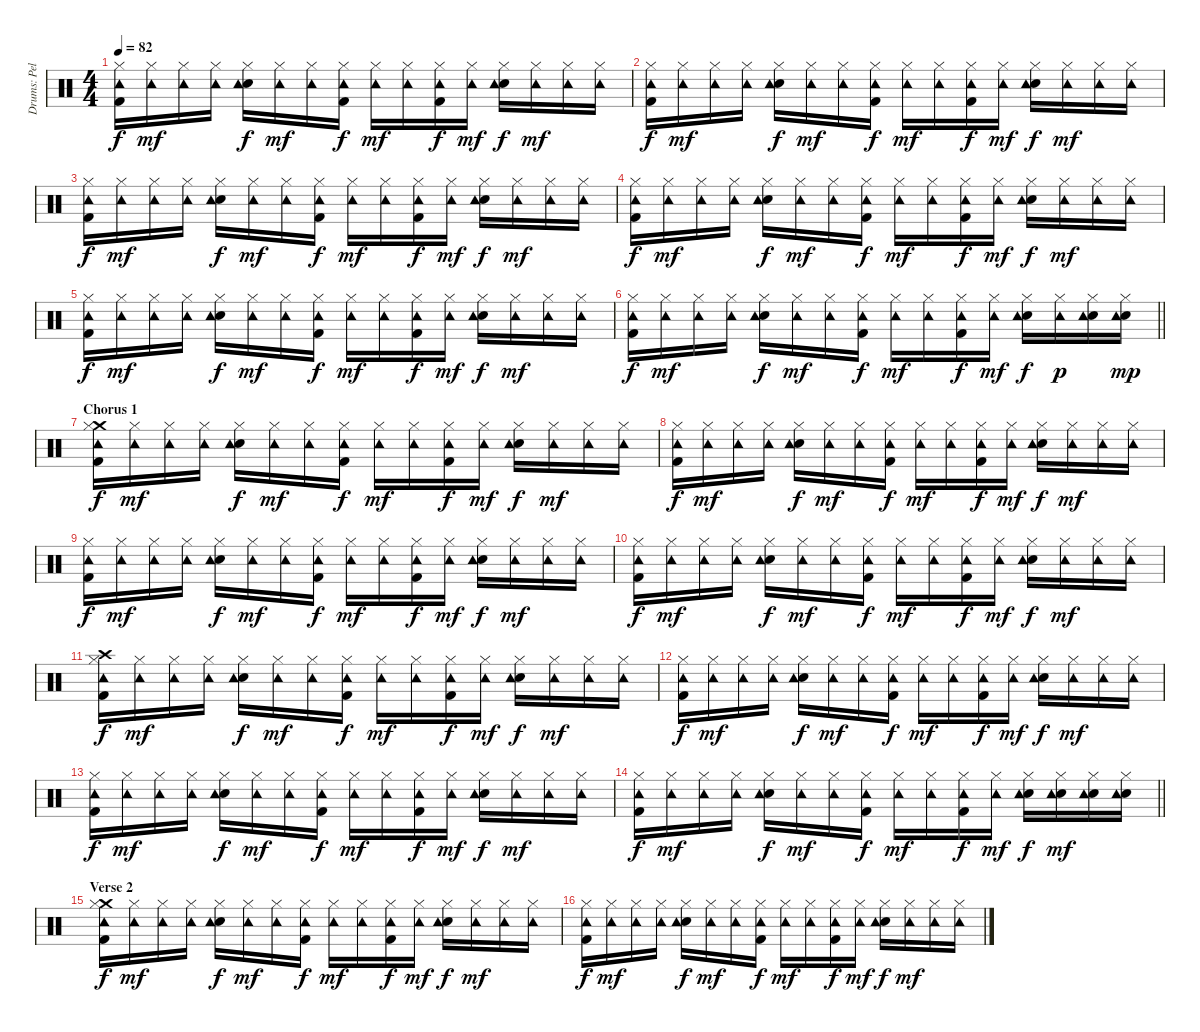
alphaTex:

\track ("Drums: Pelle Alsing" "Drums: Pel") {instrument percussion}
\staff {score}
\articulation defaults
\ts (4 4)
\tempo 82
\clef neutral
\ks c
("Hi-Hat (closed)" "Tambourine (hit)" "Kick (hit) 2").16{dy f} ("Hi-Hat (closed)" "Tambourine (hit)").16{dy mf} ("Hi-Hat (closed)" "Tambourine (hit)").16 ("Hi-Hat (closed)" "Tambourine (hit)").16 ("Hi-Hat (closed)" "Snare (hit) 2" "Tambourine (hit)").16{dy f} ("Hi-Hat (closed)" "Tambourine (hit)").16{dy mf} ("Hi-Hat (closed)" "Tambourine (hit)").16 ("Hi-Hat (closed)" "Tambourine (hit)" "Kick (hit) 2").16{dy f} ("Hi-Hat (closed)" "Tambourine (hit)").16{dy mf} ("Hi-Hat (closed)" "Tambourine (hit)").16 ("Hi-Hat (closed)" "Tambourine (hit)" "Kick (hit) 2").16{dy f} ("Hi-Hat (closed)" "Tambourine (hit)").16{dy mf} ("Hi-Hat (closed)" "Snare (hit) 2" "Tambourine (hit)").16{dy f} ("Hi-Hat (closed)" "Tambourine (hit)").16{dy mf} ("Hi-Hat (closed)" "Tambourine (hit)").16 ("Hi-Hat (closed)" "Tambourine (hit)").16 |
("Hi-Hat (closed)" "Tambourine (hit)" "Kick (hit) 2").16{dy f} ("Hi-Hat (closed)" "Tambourine (hit)").16{dy mf} ("Hi-Hat (closed)" "Tambourine (hit)").16 ("Hi-Hat (closed)" "Tambourine (hit)").16 ("Hi-Hat (closed)" "Snare (hit) 2" "Tambourine (hit)").16{dy f} ("Hi-Hat (closed)" "Tambourine (hit)").16{dy mf} ("Hi-Hat (closed)" "Tambourine (hit)").16 ("Hi-Hat (closed)" "Tambourine (hit)" "Kick (hit) 2").16{dy f} ("Hi-Hat (closed)" "Tambourine (hit)").16{dy mf} ("Hi-Hat (closed)" "Tambourine (hit)").16 ("Hi-Hat (closed)" "Tambourine (hit)" "Kick (hit) 2").16{dy f} ("Hi-Hat (closed)" "Tambourine (hit)").16{dy mf} ("Hi-Hat (closed)" "Snare (hit) 2" "Tambourine (hit)").16{dy f} ("Hi-Hat (closed)" "Tambourine (hit)").16{dy mf} ("Hi-Hat (closed)" "Tambourine (hit)").16 ("Hi-Hat (closed)" "Tambourine (hit)").16 |
("Hi-Hat (closed)" "Tambourine (hit)" "Kick (hit) 2").16{dy f} ("Hi-Hat (closed)" "Tambourine (hit)").16{dy mf} ("Hi-Hat (closed)" "Tambourine (hit)").16 ("Hi-Hat (closed)" "Tambourine (hit)").16 ("Hi-Hat (closed)" "Snare (hit) 2" "Tambourine (hit)").16{dy f} ("Hi-Hat (closed)" "Tambourine (hit)").16{dy mf} ("Hi-Hat (closed)" "Tambourine (hit)").16 ("Hi-Hat (closed)" "Tambourine (hit)" "Kick (hit) 2").16{dy f} ("Hi-Hat (closed)" "Tambourine (hit)").16{dy mf} ("Hi-Hat (closed)" "Tambourine (hit)").16 ("Hi-Hat (closed)" "Tambourine (hit)" "Kick (hit) 2").16{dy f} ("Hi-Hat (closed)" "Tambourine (hit)").16{dy mf} ("Hi-Hat (closed)" "Snare (hit) 2" "Tambourine (hit)").16{dy f} ("Hi-Hat (closed)" "Tambourine (hit)").16{dy mf} ("Hi-Hat (closed)" "Tambourine (hit)").16 ("Hi-Hat (closed)" "Tambourine (hit)").16 |
("Hi-Hat (closed)" "Tambourine (hit)" "Kick (hit) 2").16{dy f} ("Hi-Hat (closed)" "Tambourine (hit)").16{dy mf} ("Hi-Hat (closed)" "Tambourine (hit)").16 ("Hi-Hat (closed)" "Tambourine (hit)").16 ("Hi-Hat (closed)" "Snare (hit) 2" "Tambourine (hit)").16{dy f} ("Hi-Hat (closed)" "Tambourine (hit)").16{dy mf} ("Hi-Hat (closed)" "Tambourine (hit)").16 ("Hi-Hat (closed)" "Tambourine (hit)" "Kick (hit) 2").16{dy f} ("Hi-Hat (closed)" "Tambourine (hit)").16{dy mf} ("Hi-Hat (closed)" "Tambourine (hit)").16 ("Hi-Hat (closed)" "Tambourine (hit)" "Kick (hit) 2").16{dy f} ("Hi-Hat (closed)" "Tambourine (hit)").16{dy mf} ("Hi-Hat (closed)" "Snare (hit) 2" "Tambourine (hit)").16{dy f} ("Hi-Hat (closed)" "Tambourine (hit)").16{dy mf} ("Hi-Hat (closed)" "Tambourine (hit)").16 ("Hi-Hat (closed)" "Tambourine (hit)").16 |
("Hi-Hat (closed)" "Tambourine (hit)" "Kick (hit) 2").16{dy f} ("Hi-Hat (closed)" "Tambourine (hit)").16{dy mf} ("Hi-Hat (closed)" "Tambourine (hit)").16 ("Hi-Hat (closed)" "Tambourine (hit)").16 ("Hi-Hat (closed)" "Snare (hit) 2" "Tambourine (hit)").16{dy f} ("Hi-Hat (closed)" "Tambourine (hit)").16{dy mf} ("Hi-Hat (closed)" "Tambourine (hit)").16 ("Hi-Hat (closed)" "Tambourine (hit)" "Kick (hit) 2").16{dy f} ("Hi-Hat (closed)" "Tambourine (hit)").16{dy mf} ("Hi-Hat (closed)" "Tambourine (hit)").16 ("Hi-Hat (closed)" "Tambourine (hit)" "Kick (hit) 2").16{dy f} ("Hi-Hat (closed)" "Tambourine (hit)").16{dy mf} ("Hi-Hat (closed)" "Snare (hit) 2" "Tambourine (hit)").16{dy f} ("Hi-Hat (closed)" "Tambourine (hit)").16{dy mf} ("Hi-Hat (closed)" "Tambourine (hit)").16 ("Hi-Hat (closed)" "Tambourine (hit)").16 |
\barLineRight lightlight
("Hi-Hat (closed)" "Tambourine (hit)" "Kick (hit) 2").16{dy f} ("Hi-Hat (closed)" "Tambourine (hit)").16{dy mf} ("Hi-Hat (closed)" "Tambourine (hit)").16 ("Hi-Hat (closed)" "Tambourine (hit)").16 ("Hi-Hat (closed)" "Snare (hit) 2" "Tambourine (hit)").16{dy f} ("Hi-Hat (closed)" "Tambourine (hit)").16{dy mf} ("Hi-Hat (closed)" "Tambourine (hit)").16 ("Hi-Hat (closed)" "Tambourine (hit)" "Kick (hit) 2").16{dy f} ("Hi-Hat (closed)" "Tambourine (hit)").16{dy mf} ("Hi-Hat (closed)" "Tambourine (hit)").16 ("Hi-Hat (closed)" "Tambourine (hit)" "Kick (hit) 2").16{dy f} ("Hi-Hat (closed)" "Tambourine (hit)").16{dy mf} ("Hi-Hat (closed)" "Snare (hit) 2" "Tambourine (hit)").16{dy f} ("Hi-Hat (closed)" "Tambourine (hit)").16{dy p} ("Snare (hit) 2" "Hi-Hat (closed)" "Tambourine (hit)").16 ("Snare (hit) 2" "Hi-Hat (closed)" "Tambourine (hit)").16{dy mp} |
\section ("" "Chorus 1")
("Crash medium (hit)" "Hi-Hat (closed)" "Tambourine (hit)" "Kick (hit) 2").16{dy f} ("Hi-Hat (closed)" "Tambourine (hit)").16{dy mf} ("Hi-Hat (closed)" "Tambourine (hit)").16 ("Hi-Hat (closed)" "Tambourine (hit)").16 ("Hi-Hat (closed)" "Snare (hit) 2" "Tambourine (hit)").16{dy f} ("Hi-Hat (closed)" "Tambourine (hit)").16{dy mf} ("Hi-Hat (closed)" "Tambourine (hit)").16 ("Hi-Hat (closed)" "Tambourine (hit)" "Kick (hit) 2").16{dy f} ("Hi-Hat (closed)" "Tambourine (hit)").16{dy mf} ("Hi-Hat (closed)" "Tambourine (hit)").16 ("Hi-Hat (closed)" "Tambourine (hit)" "Kick (hit) 2").16{dy f} ("Hi-Hat (closed)" "Tambourine (hit)").16{dy mf} ("Hi-Hat (closed)" "Snare (hit) 2" "Tambourine (hit)").16{dy f} ("Hi-Hat (closed)" "Tambourine (hit)").16{dy mf} ("Hi-Hat (closed)" "Tambourine (hit)").16 ("Hi-Hat (closed)" "Tambourine (hit)").16 |
("Hi-Hat (closed)" "Tambourine (hit)" "Kick (hit) 2").16{dy f} ("Hi-Hat (closed)" "Tambourine (hit)").16{dy mf} ("Hi-Hat (closed)" "Tambourine (hit)").16 ("Hi-Hat (closed)" "Tambourine (hit)").16 ("Hi-Hat (closed)" "Snare (hit) 2" "Tambourine (hit)").16{dy f} ("Hi-Hat (closed)" "Tambourine (hit)").16{dy mf} ("Hi-Hat (closed)" "Tambourine (hit)").16 ("Hi-Hat (closed)" "Tambourine (hit)" "Kick (hit) 2").16{dy f} ("Hi-Hat (closed)" "Tambourine (hit)").16{dy mf} ("Hi-Hat (closed)" "Tambourine (hit)").16 ("Hi-Hat (closed)" "Tambourine (hit)" "Kick (hit) 2").16{dy f} ("Hi-Hat (closed)" "Tambourine (hit)").16{dy mf} ("Hi-Hat (closed)" "Snare (hit) 2" "Tambourine (hit)").16{dy f} ("Hi-Hat (closed)" "Tambourine (hit)").16{dy mf} ("Hi-Hat (closed)" "Tambourine (hit)").16 ("Hi-Hat (closed)" "Tambourine (hit)").16 |
("Hi-Hat (closed)" "Tambourine (hit)" "Kick (hit) 2").16{dy f} ("Hi-Hat (closed)" "Tambourine (hit)").16{dy mf} ("Hi-Hat (closed)" "Tambourine (hit)").16 ("Hi-Hat (closed)" "Tambourine (hit)").16 ("Hi-Hat (closed)" "Snare (hit) 2" "Tambourine (hit)").16{dy f} ("Hi-Hat (closed)" "Tambourine (hit)").16{dy mf} ("Hi-Hat (closed)" "Tambourine (hit)").16 ("Hi-Hat (closed)" "Tambourine (hit)" "Kick (hit) 2").16{dy f} ("Hi-Hat (closed)" "Tambourine (hit)").16{dy mf} ("Hi-Hat (closed)" "Tambourine (hit)").16 ("Hi-Hat (closed)" "Tambourine (hit)" "Kick (hit) 2").16{dy f} ("Hi-Hat (closed)" "Tambourine (hit)").16{dy mf} ("Hi-Hat (closed)" "Snare (hit) 2" "Tambourine (hit)").16{dy f} ("Hi-Hat (closed)" "Tambourine (hit)").16{dy mf} ("Hi-Hat (closed)" "Tambourine (hit)").16 ("Hi-Hat (closed)" "Tambourine (hit)").16 |
("Hi-Hat (closed)" "Tambourine (hit)" "Kick (hit) 2").16{dy f} ("Hi-Hat (closed)" "Tambourine (hit)").16{dy mf} ("Hi-Hat (closed)" "Tambourine (hit)").16 ("Hi-Hat (closed)" "Tambourine (hit)").16 ("Hi-Hat (closed)" "Snare (hit) 2" "Tambourine (hit)").16{dy f} ("Hi-Hat (closed)" "Tambourine (hit)").16{dy mf} ("Hi-Hat (closed)" "Tambourine (hit)").16 ("Hi-Hat (closed)" "Tambourine (hit)" "Kick (hit) 2").16{dy f} ("Hi-Hat (closed)" "Tambourine (hit)").16{dy mf} ("Hi-Hat (closed)" "Tambourine (hit)").16 ("Hi-Hat (closed)" "Tambourine (hit)" "Kick (hit) 2").16{dy f} ("Hi-Hat (closed)" "Tambourine (hit)").16{dy mf} ("Hi-Hat (closed)" "Snare (hit) 2" "Tambourine (hit)").16{dy f} ("Hi-Hat (closed)" "Tambourine (hit)").16{dy mf} ("Hi-Hat (closed)" "Tambourine (hit)").16 ("Hi-Hat (closed)" "Tambourine (hit)").16 |
("Crash high (hit)" "Hi-Hat (closed)" "Tambourine (hit)" "Kick (hit) 2").16{dy f} ("Hi-Hat (closed)" "Tambourine (hit)").16{dy mf} ("Hi-Hat (closed)" "Tambourine (hit)").16 ("Hi-Hat (closed)" "Tambourine (hit)").16 ("Hi-Hat (closed)" "Snare (hit) 2" "Tambourine (hit)").16{dy f} ("Hi-Hat (closed)" "Tambourine (hit)").16{dy mf} ("Hi-Hat (closed)" "Tambourine (hit)").16 ("Hi-Hat (closed)" "Tambourine (hit)" "Kick (hit) 2").16{dy f} ("Hi-Hat (closed)" "Tambourine (hit)").16{dy mf} ("Hi-Hat (closed)" "Tambourine (hit)").16 ("Hi-Hat (closed)" "Tambourine (hit)" "Kick (hit) 2").16{dy f} ("Hi-Hat (closed)" "Tambourine (hit)").16{dy mf} ("Hi-Hat (closed)" "Snare (hit) 2" "Tambourine (hit)").16{dy f} ("Hi-Hat (closed)" "Tambourine (hit)").16{dy mf} ("Hi-Hat (closed)" "Tambourine (hit)").16 ("Hi-Hat (closed)" "Tambourine (hit)").16 |
("Hi-Hat (closed)" "Tambourine (hit)" "Kick (hit) 2").16{dy f} ("Hi-Hat (closed)" "Tambourine (hit)").16{dy mf} ("Hi-Hat (closed)" "Tambourine (hit)").16 ("Hi-Hat (closed)" "Tambourine (hit)").16 ("Hi-Hat (closed)" "Snare (hit) 2" "Tambourine (hit)").16{dy f} ("Hi-Hat (closed)" "Tambourine (hit)").16{dy mf} ("Hi-Hat (closed)" "Tambourine (hit)").16 ("Hi-Hat (closed)" "Tambourine (hit)" "Kick (hit) 2").16{dy f} ("Hi-Hat (closed)" "Tambourine (hit)").16{dy mf} ("Hi-Hat (closed)" "Tambourine (hit)").16 ("Hi-Hat (closed)" "Tambourine (hit)" "Kick (hit) 2").16{dy f} ("Hi-Hat (closed)" "Tambourine (hit)").16{dy mf} ("Hi-Hat (closed)" "Snare (hit) 2" "Tambourine (hit)").16{dy f} ("Hi-Hat (closed)" "Tambourine (hit)").16{dy mf} ("Hi-Hat (closed)" "Tambourine (hit)").16 ("Hi-Hat (closed)" "Tambourine (hit)").16 |
("Hi-Hat (closed)" "Tambourine (hit)" "Kick (hit) 2").16{dy f} ("Hi-Hat (closed)" "Tambourine (hit)").16{dy mf} ("Hi-Hat (closed)" "Tambourine (hit)").16 ("Hi-Hat (closed)" "Tambourine (hit)").16 ("Hi-Hat (closed)" "Snare (hit) 2" "Tambourine (hit)").16{dy f} ("Hi-Hat (closed)" "Tambourine (hit)").16{dy mf} ("Hi-Hat (closed)" "Tambourine (hit)").16 ("Hi-Hat (closed)" "Tambourine (hit)" "Kick (hit) 2").16{dy f} ("Hi-Hat (closed)" "Tambourine (hit)").16{dy mf} ("Hi-Hat (closed)" "Tambourine (hit)").16 ("Hi-Hat (closed)" "Tambourine (hit)" "Kick (hit) 2").16{dy f} ("Hi-Hat (closed)" "Tambourine (hit)").16{dy mf} ("Hi-Hat (closed)" "Snare (hit) 2" "Tambourine (hit)").16{dy f} ("Hi-Hat (closed)" "Tambourine (hit)").16{dy mf} ("Hi-Hat (closed)" "Tambourine (hit)").16 ("Hi-Hat (closed)" "Tambourine (hit)").16 |
\barLineRight lightlight
("Hi-Hat (closed)" "Tambourine (hit)" "Kick (hit) 2").16{dy f} ("Hi-Hat (closed)" "Tambourine (hit)").16{dy mf} ("Hi-Hat (closed)" "Tambourine (hit)").16 ("Hi-Hat (closed)" "Tambourine (hit)").16 ("Hi-Hat (closed)" "Snare (hit) 2" "Tambourine (hit)").16{dy f} ("Hi-Hat (closed)" "Tambourine (hit)").16{dy mf} ("Hi-Hat (closed)" "Tambourine (hit)").16 ("Hi-Hat (closed)" "Tambourine (hit)" "Kick (hit) 2").16{dy f} ("Hi-Hat (closed)" "Tambourine (hit)").16{dy mf} ("Hi-Hat (closed)" "Tambourine (hit)").16 ("Hi-Hat (closed)" "Tambourine (hit)" "Kick (hit) 2").16{dy f} ("Hi-Hat (closed)" "Tambourine (hit)").16{dy mf} ("Hi-Hat (closed)" "Snare (hit) 2" "Tambourine (hit)").16{dy f} ("Hi-Hat (closed)" "Snare (hit) 2" "Tambourine (hit)").16{dy mf} ("Hi-Hat (closed)" "Snare (hit) 2" "Tambourine (hit)").16 ("Hi-Hat (closed)" "Snare (hit) 2" "Tambourine (hit)").16 |
\section ("" "Verse 2")
("Crash medium (hit)" "Hi-Hat (closed)" "Tambourine (hit)" "Kick (hit) 2").16{dy f} ("Hi-Hat (closed)" "Tambourine (hit)").16{dy mf} ("Hi-Hat (closed)" "Tambourine (hit)").16 ("Hi-Hat (closed)" "Tambourine (hit)").16 ("Hi-Hat (closed)" "Snare (hit) 2" "Tambourine (hit)").16{dy f} ("Hi-Hat (closed)" "Tambourine (hit)").16{dy mf} ("Hi-Hat (closed)" "Tambourine (hit)").16 ("Hi-Hat (closed)" "Tambourine (hit)" "Kick (hit) 2").16{dy f} ("Hi-Hat (closed)" "Tambourine (hit)").16{dy mf} ("Hi-Hat (closed)" "Tambourine (hit)").16 ("Hi-Hat (closed)" "Tambourine (hit)" "Kick (hit) 2").16{dy f} ("Hi-Hat (closed)" "Tambourine (hit)").16{dy mf} ("Hi-Hat (closed)" "Snare (hit) 2" "Tambourine (hit)").16{dy f} ("Hi-Hat (closed)" "Tambourine (hit)").16{dy mf} ("Hi-Hat (closed)" "Tambourine (hit)").16 ("Hi-Hat (closed)" "Tambourine (hit)").16 |
("Hi-Hat (closed)" "Tambourine (hit)" "Kick (hit) 2").16{dy f} ("Hi-Hat (closed)" "Tambourine (hit)").16{dy mf} ("Hi-Hat (closed)" "Tambourine (hit)").16 ("Hi-Hat (closed)" "Tambourine (hit)").16 ("Hi-Hat (closed)" "Snare (hit) 2" "Tambourine (hit)").16{dy f} ("Hi-Hat (closed)" "Tambourine (hit)").16{dy mf} ("Hi-Hat (closed)" "Tambourine (hit)").16 ("Hi-Hat (closed)" "Tambourine (hit)" "Kick (hit) 2").16{dy f} ("Hi-Hat (closed)" "Tambourine (hit)").16{dy mf} ("Hi-Hat (closed)" "Tambourine (hit)").16 ("Hi-Hat (closed)" "Tambourine (hit)" "Kick (hit) 2").16{dy f} ("Hi-Hat (closed)" "Tambourine (hit)").16{dy mf} ("Hi-Hat (closed)" "Snare (hit) 2" "Tambourine (hit)").16{dy f} ("Hi-Hat (closed)" "Tambourine (hit)").16{dy mf} ("Hi-Hat (closed)" "Tambourine (hit)").16 ("Hi-Hat (closed)" "Tambourine (hit)").16
